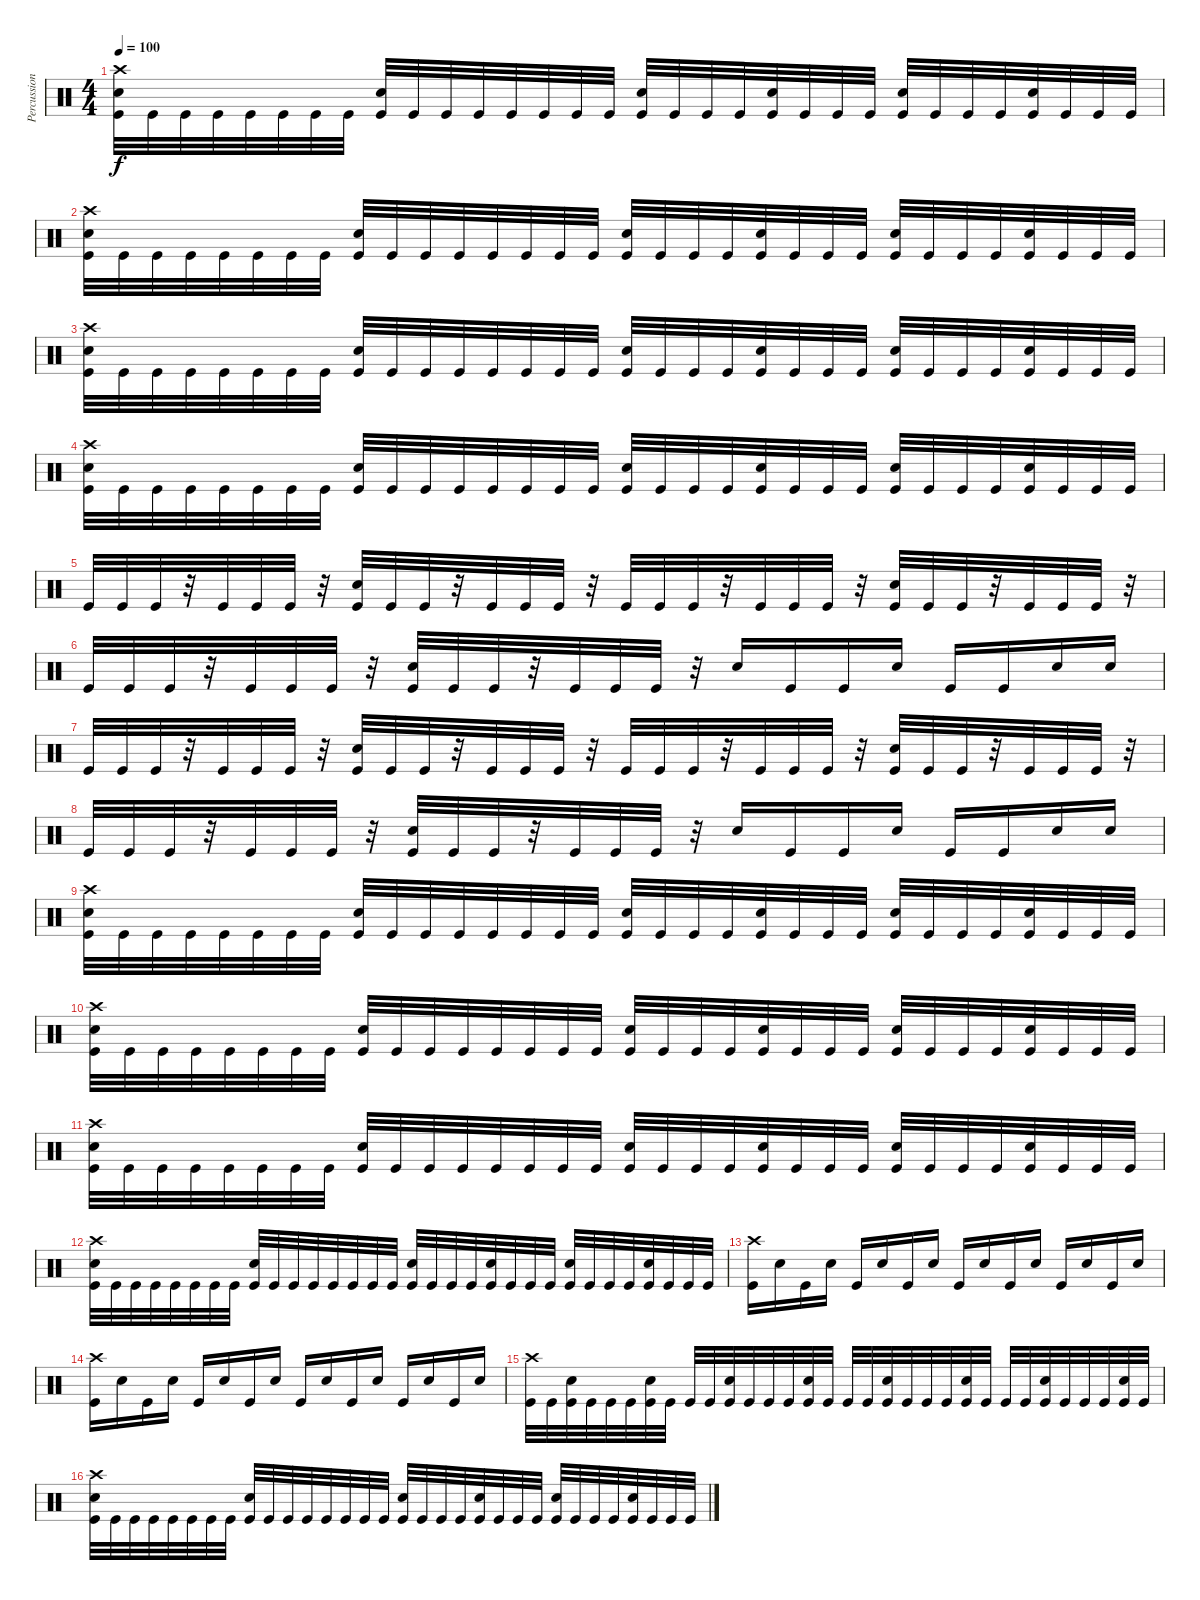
\track ("Percussions" "Percussion") {instrument percussion}
\staff {score}
\articulation defaults
\ts (4 4)
\tempo 100
\clef neutral
\ks c
("Kick (hit)" "Electric Snare (hit)" "Crash high (hit)").32{dy f} "Kick (hit)".32 "Kick (hit)".32 "Kick (hit)".32 "Kick (hit)".32 "Kick (hit)".32 "Kick (hit)".32 "Kick (hit)".32 ("Kick (hit)" "Electric Snare (hit)").32 "Kick (hit)".32 "Kick (hit)".32 "Kick (hit)".32 "Kick (hit)".32 "Kick (hit)".32 "Kick (hit)".32 "Kick (hit)".32 ("Kick (hit)" "Electric Snare (hit)").32 "Kick (hit)".32 "Kick (hit)".32 "Kick (hit)".32 ("Kick (hit)" "Electric Snare (hit)").32 "Kick (hit)".32 "Kick (hit)".32 "Kick (hit)".32 ("Kick (hit)" "Electric Snare (hit)").32 "Kick (hit)".32 "Kick (hit)".32 "Kick (hit)".32 ("Kick (hit)" "Electric Snare (hit)").32 "Kick (hit)".32 "Kick (hit)".32 "Kick (hit)".32 |
("Kick (hit)" "Electric Snare (hit)" "Crash high (hit)").32 "Kick (hit)".32 "Kick (hit)".32 "Kick (hit)".32 "Kick (hit)".32 "Kick (hit)".32 "Kick (hit)".32 "Kick (hit)".32 ("Kick (hit)" "Electric Snare (hit)").32 "Kick (hit)".32 "Kick (hit)".32 "Kick (hit)".32 "Kick (hit)".32 "Kick (hit)".32 "Kick (hit)".32 "Kick (hit)".32 ("Kick (hit)" "Electric Snare (hit)").32 "Kick (hit)".32 "Kick (hit)".32 "Kick (hit)".32 ("Kick (hit)" "Electric Snare (hit)").32 "Kick (hit)".32 "Kick (hit)".32 "Kick (hit)".32 ("Kick (hit)" "Electric Snare (hit)").32 "Kick (hit)".32 "Kick (hit)".32 "Kick (hit)".32 ("Kick (hit)" "Electric Snare (hit)").32 "Kick (hit)".32 "Kick (hit)".32 "Kick (hit)".32 |
("Kick (hit)" "Electric Snare (hit)" "Crash high (hit)").32 "Kick (hit)".32 "Kick (hit)".32 "Kick (hit)".32 "Kick (hit)".32 "Kick (hit)".32 "Kick (hit)".32 "Kick (hit)".32 ("Kick (hit)" "Electric Snare (hit)").32 "Kick (hit)".32 "Kick (hit)".32 "Kick (hit)".32 "Kick (hit)".32 "Kick (hit)".32 "Kick (hit)".32 "Kick (hit)".32 ("Kick (hit)" "Electric Snare (hit)").32 "Kick (hit)".32 "Kick (hit)".32 "Kick (hit)".32 ("Kick (hit)" "Electric Snare (hit)").32 "Kick (hit)".32 "Kick (hit)".32 "Kick (hit)".32 ("Kick (hit)" "Electric Snare (hit)").32 "Kick (hit)".32 "Kick (hit)".32 "Kick (hit)".32 ("Kick (hit)" "Electric Snare (hit)").32 "Kick (hit)".32 "Kick (hit)".32 "Kick (hit)".32 |
("Kick (hit)" "Electric Snare (hit)" "Crash high (hit)").32 "Kick (hit)".32 "Kick (hit)".32 "Kick (hit)".32 "Kick (hit)".32 "Kick (hit)".32 "Kick (hit)".32 "Kick (hit)".32 ("Kick (hit)" "Electric Snare (hit)").32 "Kick (hit)".32 "Kick (hit)".32 "Kick (hit)".32 "Kick (hit)".32 "Kick (hit)".32 "Kick (hit)".32 "Kick (hit)".32 ("Kick (hit)" "Electric Snare (hit)").32 "Kick (hit)".32 "Kick (hit)".32 "Kick (hit)".32 ("Kick (hit)" "Electric Snare (hit)").32 "Kick (hit)".32 "Kick (hit)".32 "Kick (hit)".32 ("Kick (hit)" "Electric Snare (hit)").32 "Kick (hit)".32 "Kick (hit)".32 "Kick (hit)".32 ("Kick (hit)" "Electric Snare (hit)").32 "Kick (hit)".32 "Kick (hit)".32 "Kick (hit)".32 |
"Kick (hit)".32 "Kick (hit)".32 "Kick (hit)".32 r.32 "Kick (hit)".32 "Kick (hit)".32 "Kick (hit)".32 r.32 ("Kick (hit)" "Electric Snare (hit)").32 "Kick (hit)".32 "Kick (hit)".32 r.32 "Kick (hit)".32 "Kick (hit)".32 "Kick (hit)".32 r.32 "Kick (hit)".32 "Kick (hit)".32 "Kick (hit)".32 r.32 "Kick (hit)".32 "Kick (hit)".32 "Kick (hit)".32 r.32 ("Kick (hit)" "Electric Snare (hit)").32 "Kick (hit)".32 "Kick (hit)".32 r.32 "Kick (hit)".32 "Kick (hit)".32 "Kick (hit)".32 r.32 |
"Kick (hit)".32 "Kick (hit)".32 "Kick (hit)".32 r.32 "Kick (hit)".32 "Kick (hit)".32 "Kick (hit)".32 r.32 ("Kick (hit)" "Electric Snare (hit)").32 "Kick (hit)".32 "Kick (hit)".32 r.32 "Kick (hit)".32 "Kick (hit)".32 "Kick (hit)".32 r.32 "Electric Snare (hit)".16 "Kick (hit)".16 "Kick (hit)".16 "Electric Snare (hit)".16 "Kick (hit)".16 "Kick (hit)".16 "Electric Snare (hit)".16 "Electric Snare (hit)".16 |
"Kick (hit)".32 "Kick (hit)".32 "Kick (hit)".32 r.32 "Kick (hit)".32 "Kick (hit)".32 "Kick (hit)".32 r.32 ("Kick (hit)" "Electric Snare (hit)").32 "Kick (hit)".32 "Kick (hit)".32 r.32 "Kick (hit)".32 "Kick (hit)".32 "Kick (hit)".32 r.32 "Kick (hit)".32 "Kick (hit)".32 "Kick (hit)".32 r.32 "Kick (hit)".32 "Kick (hit)".32 "Kick (hit)".32 r.32 ("Kick (hit)" "Electric Snare (hit)").32 "Kick (hit)".32 "Kick (hit)".32 r.32 "Kick (hit)".32 "Kick (hit)".32 "Kick (hit)".32 r.32 |
"Kick (hit)".32 "Kick (hit)".32 "Kick (hit)".32 r.32 "Kick (hit)".32 "Kick (hit)".32 "Kick (hit)".32 r.32 ("Kick (hit)" "Electric Snare (hit)").32 "Kick (hit)".32 "Kick (hit)".32 r.32 "Kick (hit)".32 "Kick (hit)".32 "Kick (hit)".32 r.32 "Electric Snare (hit)".16 "Kick (hit)".16 "Kick (hit)".16 "Electric Snare (hit)".16 "Kick (hit)".16 "Kick (hit)".16 "Electric Snare (hit)".16 "Electric Snare (hit)".16 |
("Kick (hit)" "Electric Snare (hit)" "Crash high (hit)").32 "Kick (hit)".32 "Kick (hit)".32 "Kick (hit)".32 "Kick (hit)".32 "Kick (hit)".32 "Kick (hit)".32 "Kick (hit)".32 ("Kick (hit)" "Electric Snare (hit)").32 "Kick (hit)".32 "Kick (hit)".32 "Kick (hit)".32 "Kick (hit)".32 "Kick (hit)".32 "Kick (hit)".32 "Kick (hit)".32 ("Kick (hit)" "Electric Snare (hit)").32 "Kick (hit)".32 "Kick (hit)".32 "Kick (hit)".32 ("Kick (hit)" "Electric Snare (hit)").32 "Kick (hit)".32 "Kick (hit)".32 "Kick (hit)".32 ("Kick (hit)" "Electric Snare (hit)").32 "Kick (hit)".32 "Kick (hit)".32 "Kick (hit)".32 ("Kick (hit)" "Electric Snare (hit)").32 "Kick (hit)".32 "Kick (hit)".32 "Kick (hit)".32 |
("Kick (hit)" "Electric Snare (hit)" "Crash high (hit)").32 "Kick (hit)".32 "Kick (hit)".32 "Kick (hit)".32 "Kick (hit)".32 "Kick (hit)".32 "Kick (hit)".32 "Kick (hit)".32 ("Kick (hit)" "Electric Snare (hit)").32 "Kick (hit)".32 "Kick (hit)".32 "Kick (hit)".32 "Kick (hit)".32 "Kick (hit)".32 "Kick (hit)".32 "Kick (hit)".32 ("Kick (hit)" "Electric Snare (hit)").32 "Kick (hit)".32 "Kick (hit)".32 "Kick (hit)".32 ("Kick (hit)" "Electric Snare (hit)").32 "Kick (hit)".32 "Kick (hit)".32 "Kick (hit)".32 ("Kick (hit)" "Electric Snare (hit)").32 "Kick (hit)".32 "Kick (hit)".32 "Kick (hit)".32 ("Kick (hit)" "Electric Snare (hit)").32 "Kick (hit)".32 "Kick (hit)".32 "Kick (hit)".32 |
("Kick (hit)" "Electric Snare (hit)" "Crash high (hit)").32 "Kick (hit)".32 "Kick (hit)".32 "Kick (hit)".32 "Kick (hit)".32 "Kick (hit)".32 "Kick (hit)".32 "Kick (hit)".32 ("Kick (hit)" "Electric Snare (hit)").32 "Kick (hit)".32 "Kick (hit)".32 "Kick (hit)".32 "Kick (hit)".32 "Kick (hit)".32 "Kick (hit)".32 "Kick (hit)".32 ("Kick (hit)" "Electric Snare (hit)").32 "Kick (hit)".32 "Kick (hit)".32 "Kick (hit)".32 ("Kick (hit)" "Electric Snare (hit)").32 "Kick (hit)".32 "Kick (hit)".32 "Kick (hit)".32 ("Kick (hit)" "Electric Snare (hit)").32 "Kick (hit)".32 "Kick (hit)".32 "Kick (hit)".32 ("Kick (hit)" "Electric Snare (hit)").32 "Kick (hit)".32 "Kick (hit)".32 "Kick (hit)".32 |
("Kick (hit)" "Electric Snare (hit)" "Crash high (hit)").32 "Kick (hit)".32 "Kick (hit)".32 "Kick (hit)".32 "Kick (hit)".32 "Kick (hit)".32 "Kick (hit)".32 "Kick (hit)".32 ("Kick (hit)" "Electric Snare (hit)").32 "Kick (hit)".32 "Kick (hit)".32 "Kick (hit)".32 "Kick (hit)".32 "Kick (hit)".32 "Kick (hit)".32 "Kick (hit)".32 ("Kick (hit)" "Electric Snare (hit)").32 "Kick (hit)".32 "Kick (hit)".32 "Kick (hit)".32 ("Kick (hit)" "Electric Snare (hit)").32 "Kick (hit)".32 "Kick (hit)".32 "Kick (hit)".32 ("Kick (hit)" "Electric Snare (hit)").32 "Kick (hit)".32 "Kick (hit)".32 "Kick (hit)".32 ("Kick (hit)" "Electric Snare (hit)").32 "Kick (hit)".32 "Kick (hit)".32 "Kick (hit)".32 |
("Kick (hit)" "Crash high (hit)").16 "Electric Snare (hit)".16 "Kick (hit)".16 "Electric Snare (hit)".16 "Kick (hit)".16 "Electric Snare (hit)".16 "Kick (hit)".16 "Electric Snare (hit)".16 "Kick (hit)".16 "Electric Snare (hit)".16 "Kick (hit)".16 "Electric Snare (hit)".16 "Kick (hit)".16 "Electric Snare (hit)".16 "Kick (hit)".16 "Electric Snare (hit)".16 |
("Kick (hit)" "Crash high (hit)").16 "Electric Snare (hit)".16 "Kick (hit)".16 "Electric Snare (hit)".16 "Kick (hit)".16 "Electric Snare (hit)".16 "Kick (hit)".16 "Electric Snare (hit)".16 "Kick (hit)".16 "Electric Snare (hit)".16 "Kick (hit)".16 "Electric Snare (hit)".16 "Kick (hit)".16 "Electric Snare (hit)".16 "Kick (hit)".16 "Electric Snare (hit)".16 |
("Kick (hit)" "Crash high (hit)").32 "Kick (hit)".32 ("Kick (hit)" "Electric Snare (hit)").32 "Kick (hit)".32 "Kick (hit)".32 "Kick (hit)".32 ("Kick (hit)" "Electric Snare (hit)").32 "Kick (hit)".32 "Kick (hit)".32 "Kick (hit)".32 ("Kick (hit)" "Electric Snare (hit)").32 "Kick (hit)".32 "Kick (hit)".32 "Kick (hit)".32 ("Kick (hit)" "Electric Snare (hit)").32 "Kick (hit)".32 "Kick (hit)".32 "Kick (hit)".32 ("Kick (hit)" "Electric Snare (hit)").32 "Kick (hit)".32 "Kick (hit)".32 "Kick (hit)".32 ("Kick (hit)" "Electric Snare (hit)").32 "Kick (hit)".32 "Kick (hit)".32 "Kick (hit)".32 ("Kick (hit)" "Electric Snare (hit)").32 "Kick (hit)".32 "Kick (hit)".32 "Kick (hit)".32 ("Kick (hit)" "Electric Snare (hit)").32 "Kick (hit)".32 |
("Kick (hit)" "Electric Snare (hit)" "Crash high (hit)").32 "Kick (hit)".32 "Kick (hit)".32 "Kick (hit)".32 "Kick (hit)".32 "Kick (hit)".32 "Kick (hit)".32 "Kick (hit)".32 ("Kick (hit)" "Electric Snare (hit)").32 "Kick (hit)".32 "Kick (hit)".32 "Kick (hit)".32 "Kick (hit)".32 "Kick (hit)".32 "Kick (hit)".32 "Kick (hit)".32 ("Kick (hit)" "Electric Snare (hit)").32 "Kick (hit)".32 "Kick (hit)".32 "Kick (hit)".32 ("Kick (hit)" "Electric Snare (hit)").32 "Kick (hit)".32 "Kick (hit)".32 "Kick (hit)".32 ("Kick (hit)" "Electric Snare (hit)").32 "Kick (hit)".32 "Kick (hit)".32 "Kick (hit)".32 ("Kick (hit)" "Electric Snare (hit)").32 "Kick (hit)".32 "Kick (hit)".32 "Kick (hit)".32
